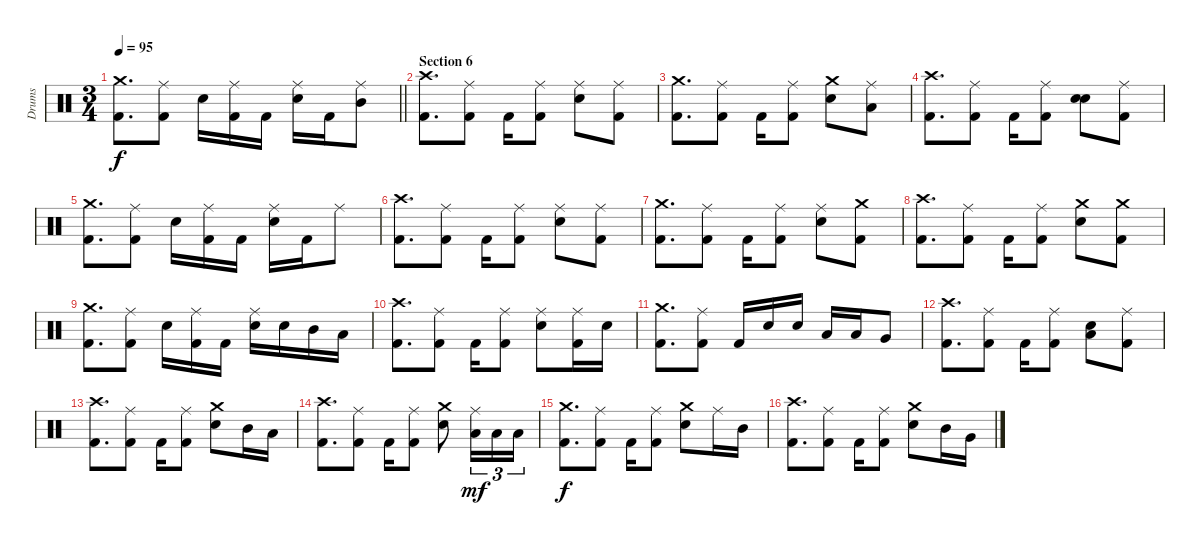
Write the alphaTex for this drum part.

\track ("Drums" "Drums") {instrument percussion}
\staff {score}
\articulation defaults
\ts (3 4)
\tempo 95
\clef neutral
\barLineRight lightlight
\ks c
("Crash medium (hit)" "Kick (hit) 2").8{d dy f} ("Ride (middle)" "Kick (hit) 2").8 "Electric Snare (hit)".16 ("Ride (middle)" "Kick (hit) 2").16 "Kick (hit) 2".16 ("Ride (middle)" "Electric Snare (hit)").16 "Kick (hit) 2".16 ("Ride (middle)" "Mid Tom (hit)").8 |
\section ("" "Section 6")
("Crash high (hit)" "Kick (hit) 2").8{d} ("Ride (middle)" "Kick (hit) 2").8 "Kick (hit) 2".16 ("Ride (middle)" "Kick (hit) 2").8 ("Ride (middle)" "Electric Snare (hit)").8 ("Ride (middle)" "Kick (hit) 2").8 |
("Crash medium (hit)" "Kick (hit) 2").8{d} ("Ride (middle)" "Kick (hit) 2").8 "Kick (hit) 2".16 ("Ride (middle)" "Kick (hit) 2").8 ("Crash medium (hit)" "Electric Snare (hit)").8 ("Ride (middle)" "Low Tom (hit)").8 |
("Crash high (hit)" "Kick (hit) 2").8{d} ("Ride (middle)" "Kick (hit) 2").8 "Kick (hit) 2".16 ("Ride (middle)" "Kick (hit) 2").8 ("Electric Snare (hit)" "Electric Snare (hit)").8{bu 120} ("Ride (middle)" "Kick (hit) 2").8 |
("Crash medium (hit)" "Kick (hit) 2").8{d} ("Ride (middle)" "Kick (hit) 2").8 "Electric Snare (hit)".16 ("Ride (middle)" "Kick (hit) 2").16 "Kick (hit) 2".16 ("Ride (middle)" "Electric Snare (hit)").16 "Kick (hit) 2".16 "Ride (middle)".8 |
("Crash high (hit)" "Kick (hit) 2").8{d} ("Ride (middle)" "Kick (hit) 2").8 "Kick (hit) 2".16 ("Ride (middle)" "Kick (hit) 2").8 ("Ride (middle)" "Electric Snare (hit)").8 ("Ride (middle)" "Kick (hit) 2").8 |
("Crash medium (hit)" "Kick (hit) 2").8{d} ("Ride (middle)" "Kick (hit) 2").8 "Kick (hit) 2".16 ("Ride (middle)" "Kick (hit) 2").8 ("Ride (middle)" "Electric Snare (hit)").8 ("Crash medium (hit)" "Kick (hit) 2").8 |
("Crash high (hit)" "Kick (hit) 2").8{d} ("Ride (middle)" "Kick (hit) 2").8 "Kick (hit) 2".16 ("Ride (middle)" "Kick (hit) 2").8 ("Crash medium (hit)" "Electric Snare (hit)").8 ("Crash medium (hit)" "Kick (hit) 2").8 |
("Crash medium (hit)" "Kick (hit) 2").8{d} ("Ride (middle)" "Kick (hit) 2").8 "Electric Snare (hit)".16 ("Ride (middle)" "Kick (hit) 2").16 "Kick (hit) 2".16 ("Ride (middle)" "Electric Snare (hit)").16 "Electric Snare (hit)".16 "Mid Tom (hit)".16 "Low Tom (hit)".16 |
("Crash high (hit)" "Kick (hit) 2").8{d} ("Ride (middle)" "Kick (hit) 2").8 "Kick (hit) 2".16 ("Ride (middle)" "Kick (hit) 2").8 ("Ride (middle)" "Electric Snare (hit)").8 ("Ride (middle)" "Kick (hit) 2").16 "Electric Snare (hit)".16 |
("Crash medium (hit)" "Kick (hit) 2").8{d} ("Ride (middle)" "Kick (hit) 2").8 "Kick (hit) 2".16 "Electric Snare (hit)".16 "Electric Snare (hit)".16 "Low Tom (hit)".16 "Low Tom (hit)".16 "Very Low Tom (hit)".8 |
("Crash high (hit)" "Kick (hit) 2").8{d} ("Ride (middle)" "Kick (hit) 2").8 "Kick (hit) 2".16 ("Ride (middle)" "Kick (hit) 2").8 ("Low Tom (hit)" "Electric Snare (hit)").8{bu 120} ("Ride (middle)" "Kick (hit) 2").8 |
("Crash high (hit)" "Kick (hit) 2").8{d} ("Ride (middle)" "Kick (hit) 2").8 "Kick (hit) 2".16 ("Ride (middle)" "Kick (hit) 2").8 ("Crash medium (hit)" "Electric Snare (hit)").8 "Mid Tom (hit)".16 "Low Floor Tom (hit)".16 |
("Crash high (hit)" "Kick (hit) 2").8{d} ("Ride (middle)" "Kick (hit) 2").8 "Kick (hit) 2".16 ("Ride (middle)" "Kick (hit) 2").8 ("Crash medium (hit)" "Electric Snare (hit)").8 ("Ride (middle)" "Low Tom (hit)").16{tu (3 2) dy mf} "Low Tom (hit)".16{tu (3 2)} "Low Tom (hit)".16{tu (3 2)} |
("Crash medium (hit)" "Kick (hit) 2").8{d dy f} ("Ride (middle)" "Kick (hit) 2").8 "Kick (hit) 2".16 ("Ride (middle)" "Kick (hit) 2").8 ("Crash medium (hit)" "Electric Snare (hit)").8 "Ride (middle)".16 "Mid Tom (hit)".16 |
("Crash high (hit)" "Kick (hit) 2").8{d} ("Ride (middle)" "Kick (hit) 2").8 "Kick (hit) 2".16 ("Ride (middle)" "Kick (hit) 2").8 ("Crash medium (hit)" "Electric Snare (hit)").8 "Mid Tom (hit)".16 "Very Low Tom (hit)".16
